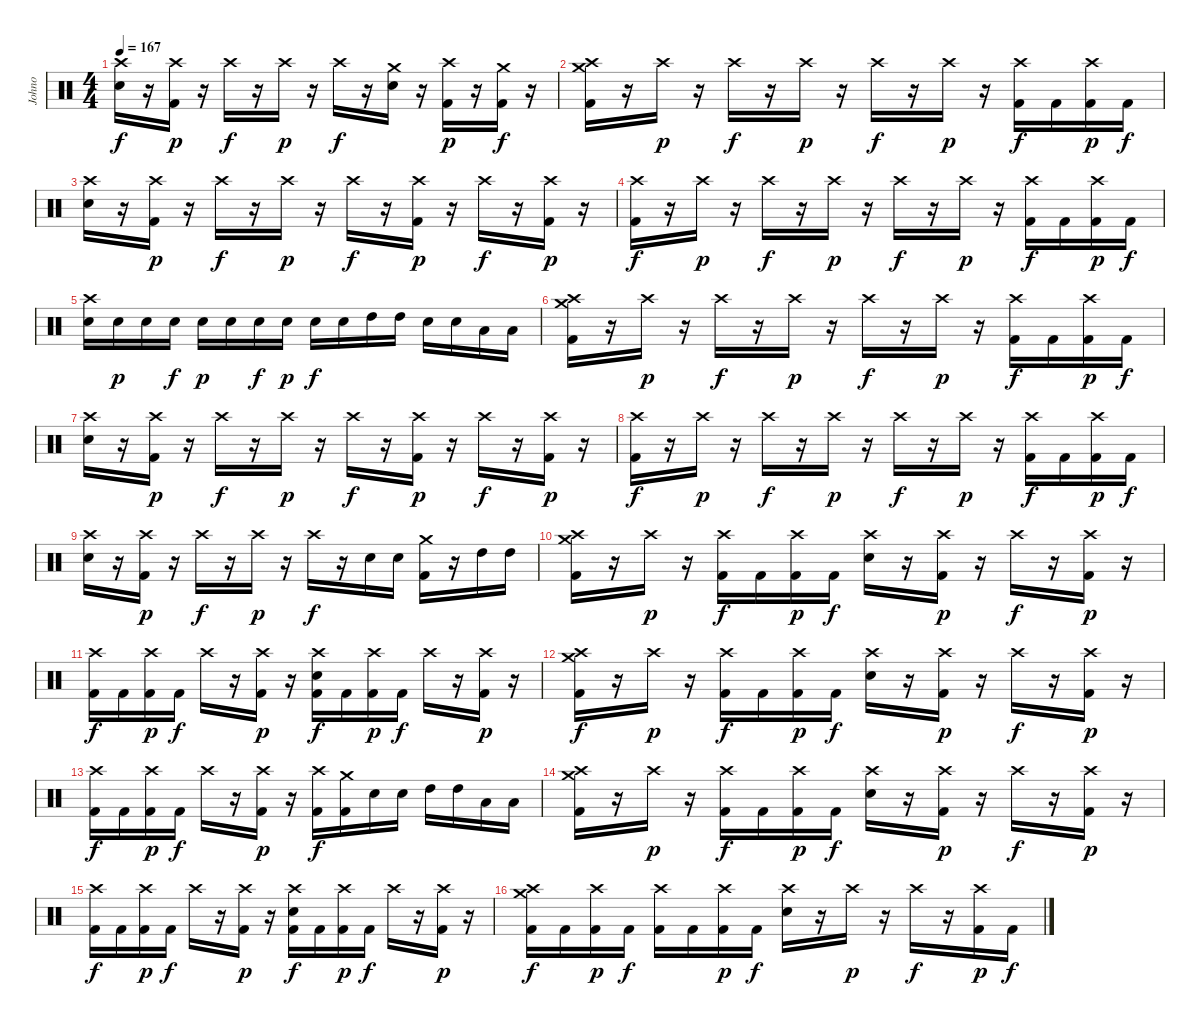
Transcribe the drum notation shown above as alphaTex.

\track ("Johno" "Johno") {instrument percussion}
\staff {score}
\articulation defaults
\ts (4 4)
\tempo 167
\clef neutral
\ks c
("Crash high (hit)" "Electric Snare (hit)").16{dy f} r.16 ("Crash high (hit)" "Kick (hit) 2").16{dy p} r.16 "Crash high (hit)".16{dy f} r.16 "Crash high (hit)".16{dy p} r.16 "Crash high (hit)".16{dy f} r.16 ("Crash medium (hit)" "Electric Snare (hit)").16 r.16 ("Crash high (hit)" "Kick (hit) 2").16{dy p} r.16 ("Crash medium (hit)" "Kick (hit) 2").16{dy f} r.16 |
("Crash medium (hit)" "Crash high (hit)" "Kick (hit) 2").16 r.16 "Crash high (hit)".16{dy p} r.16 "Crash high (hit)".16{dy f} r.16 "Crash high (hit)".16{dy p} r.16 "Crash high (hit)".16{dy f} r.16 "Crash high (hit)".16{dy p} r.16 ("Crash high (hit)" "Kick (hit) 2").16{dy f} "Kick (hit) 2".16 ("Crash high (hit)" "Kick (hit) 2").16{dy p} "Kick (hit) 2".16{dy f} |
("Crash high (hit)" "Electric Snare (hit)").16 r.16 ("Crash high (hit)" "Kick (hit) 2").16{dy p} r.16 "Crash high (hit)".16{dy f} r.16 "Crash high (hit)".16{dy p} r.16 "Crash high (hit)".16{dy f} r.16 ("Crash high (hit)" "Kick (hit) 2").16{dy p} r.16 "Crash high (hit)".16{dy f} r.16 ("Crash high (hit)" "Kick (hit) 2").16{dy p} r.16 |
("Crash high (hit)" "Kick (hit) 2").16{dy f} r.16 "Crash high (hit)".16{dy p} r.16 "Crash high (hit)".16{dy f} r.16 "Crash high (hit)".16{dy p} r.16 "Crash high (hit)".16{dy f} r.16 "Crash high (hit)".16{dy p} r.16 ("Crash high (hit)" "Kick (hit) 2").16{dy f} "Kick (hit) 2".16 ("Crash high (hit)" "Kick (hit) 2").16{dy p} "Kick (hit) 2".16{dy f} |
("Crash high (hit)" "Electric Snare (hit)").16 "Electric Snare (hit)".16{dy p} "Electric Snare (hit)".16 "Electric Snare (hit)".16{dy f} "Electric Snare (hit)".16{dy p} "Electric Snare (hit)".16 "Electric Snare (hit)".16{dy f} "Electric Snare (hit)".16{dy p} "Electric Snare (hit)".16{dy f} "Electric Snare (hit)".16 "High Tom (hit)".16 "High Tom (hit)".16 "Electric Snare (hit)".16 "Electric Snare (hit)".16 "Low Floor Tom (hit)".16 "Low Floor Tom (hit)".16 |
("Crash medium (hit)" "Crash high (hit)" "Kick (hit) 2").16 r.16 "Crash high (hit)".16{dy p} r.16 "Crash high (hit)".16{dy f} r.16 "Crash high (hit)".16{dy p} r.16 "Crash high (hit)".16{dy f} r.16 "Crash high (hit)".16{dy p} r.16 ("Crash high (hit)" "Kick (hit) 2").16{dy f} "Kick (hit) 2".16 ("Crash high (hit)" "Kick (hit) 2").16{dy p} "Kick (hit) 2".16{dy f} |
("Crash high (hit)" "Electric Snare (hit)").16 r.16 ("Crash high (hit)" "Kick (hit) 2").16{dy p} r.16 "Crash high (hit)".16{dy f} r.16 "Crash high (hit)".16{dy p} r.16 "Crash high (hit)".16{dy f} r.16 ("Crash high (hit)" "Kick (hit) 2").16{dy p} r.16 "Crash high (hit)".16{dy f} r.16 ("Crash high (hit)" "Kick (hit) 2").16{dy p} r.16 |
("Crash high (hit)" "Kick (hit) 2").16{dy f} r.16 "Crash high (hit)".16{dy p} r.16 "Crash high (hit)".16{dy f} r.16 "Crash high (hit)".16{dy p} r.16 "Crash high (hit)".16{dy f} r.16 "Crash high (hit)".16{dy p} r.16 ("Crash high (hit)" "Kick (hit) 2").16{dy f} "Kick (hit) 2".16 ("Crash high (hit)" "Kick (hit) 2").16{dy p} "Kick (hit) 2".16{dy f} |
("Crash high (hit)" "Electric Snare (hit)").16 r.16 ("Crash high (hit)" "Kick (hit) 2").16{dy p} r.16 "Crash high (hit)".16{dy f} r.16 "Crash high (hit)".16{dy p} r.16 "Crash high (hit)".16{dy f} r.16 "Electric Snare (hit)".16 "Electric Snare (hit)".16 ("Crash medium (hit)" "Kick (hit) 2").16 r.16 "High Tom (hit)".16 "High Tom (hit)".16 |
("Crash medium (hit)" "Crash high (hit)" "Kick (hit) 2").16 r.16 "Crash high (hit)".16{dy p} r.16 ("Crash high (hit)" "Kick (hit) 2").16{dy f} "Kick (hit) 2".16 ("Crash high (hit)" "Kick (hit) 2").16{dy p} "Kick (hit) 2".16{dy f} ("Crash high (hit)" "Electric Snare (hit)").16 r.16 ("Crash high (hit)" "Kick (hit) 2").16{dy p} r.16 "Crash high (hit)".16{dy f} r.16 ("Crash high (hit)" "Kick (hit) 2").16{dy p} r.16 |
("Crash high (hit)" "Kick (hit) 2").16{dy f} "Kick (hit) 2".16 ("Crash high (hit)" "Kick (hit) 2").16{dy p} "Kick (hit) 2".16{dy f} "Crash high (hit)".16 r.16 ("Crash high (hit)" "Kick (hit) 2").16{dy p} r.16 ("Crash high (hit)" "Electric Snare (hit)" "Kick (hit) 2").16{dy f} "Kick (hit) 2".16 ("Crash high (hit)" "Kick (hit) 2").16{dy p} "Kick (hit) 2".16{dy f} "Crash high (hit)".16 r.16 ("Crash high (hit)" "Kick (hit) 2").16{dy p} r.16 |
("Crash medium (hit)" "Crash high (hit)" "Kick (hit) 2").16{dy f} r.16 "Crash high (hit)".16{dy p} r.16 ("Crash high (hit)" "Kick (hit) 2").16{dy f} "Kick (hit) 2".16 ("Crash high (hit)" "Kick (hit) 2").16{dy p} "Kick (hit) 2".16{dy f} ("Crash high (hit)" "Electric Snare (hit)").16 r.16 ("Crash high (hit)" "Kick (hit) 2").16{dy p} r.16 "Crash high (hit)".16{dy f} r.16 ("Crash high (hit)" "Kick (hit) 2").16{dy p} r.16 |
("Crash high (hit)" "Kick (hit) 2").16{dy f} "Kick (hit) 2".16 ("Crash high (hit)" "Kick (hit) 2").16{dy p} "Kick (hit) 2".16{dy f} "Crash high (hit)".16 r.16 ("Crash high (hit)" "Kick (hit) 2").16{dy p} r.16 ("Crash high (hit)" "Kick (hit) 2").16{dy f} ("Crash medium (hit)" "Kick (hit) 2").16 "Electric Snare (hit)".16 "Electric Snare (hit)".16 "High Tom (hit)".16 "High Tom (hit)".16 "Low Floor Tom (hit)".16 "Low Floor Tom (hit)".16 |
("Crash medium (hit)" "Crash high (hit)" "Kick (hit) 2").16 r.16 "Crash high (hit)".16{dy p} r.16 ("Crash high (hit)" "Kick (hit) 2").16{dy f} "Kick (hit) 2".16 ("Crash high (hit)" "Kick (hit) 2").16{dy p} "Kick (hit) 2".16{dy f} ("Crash high (hit)" "Electric Snare (hit)").16 r.16 ("Crash high (hit)" "Kick (hit) 2").16{dy p} r.16 "Crash high (hit)".16{dy f} r.16 ("Crash high (hit)" "Kick (hit) 2").16{dy p} r.16 |
("Crash high (hit)" "Kick (hit) 2").16{dy f} "Kick (hit) 2".16 ("Crash high (hit)" "Kick (hit) 2").16{dy p} "Kick (hit) 2".16{dy f} "Crash high (hit)".16 r.16 ("Crash high (hit)" "Kick (hit) 2").16{dy p} r.16 ("Crash high (hit)" "Electric Snare (hit)" "Kick (hit) 2").16{dy f} "Kick (hit) 2".16 ("Crash high (hit)" "Kick (hit) 2").16{dy p} "Kick (hit) 2".16{dy f} "Crash high (hit)".16 r.16 ("Crash high (hit)" "Kick (hit) 2").16{dy p} r.16 |
("Crash medium (hit)" "Crash high (hit)" "Kick (hit) 2").16{dy f} "Kick (hit) 2".16 ("Crash high (hit)" "Kick (hit) 2").16{dy p} "Kick (hit) 2".16{dy f} ("Crash high (hit)" "Kick (hit) 2").16 "Kick (hit) 2".16 ("Crash high (hit)" "Kick (hit) 2").16{dy p} "Kick (hit) 2".16{dy f} ("Crash high (hit)" "Electric Snare (hit)").16 r.16 "Crash high (hit)".16{dy p} r.16 "Crash high (hit)".16{dy f} r.16 ("Crash high (hit)" "Kick (hit) 2").16{dy p} "Kick (hit) 2".16{dy f}
